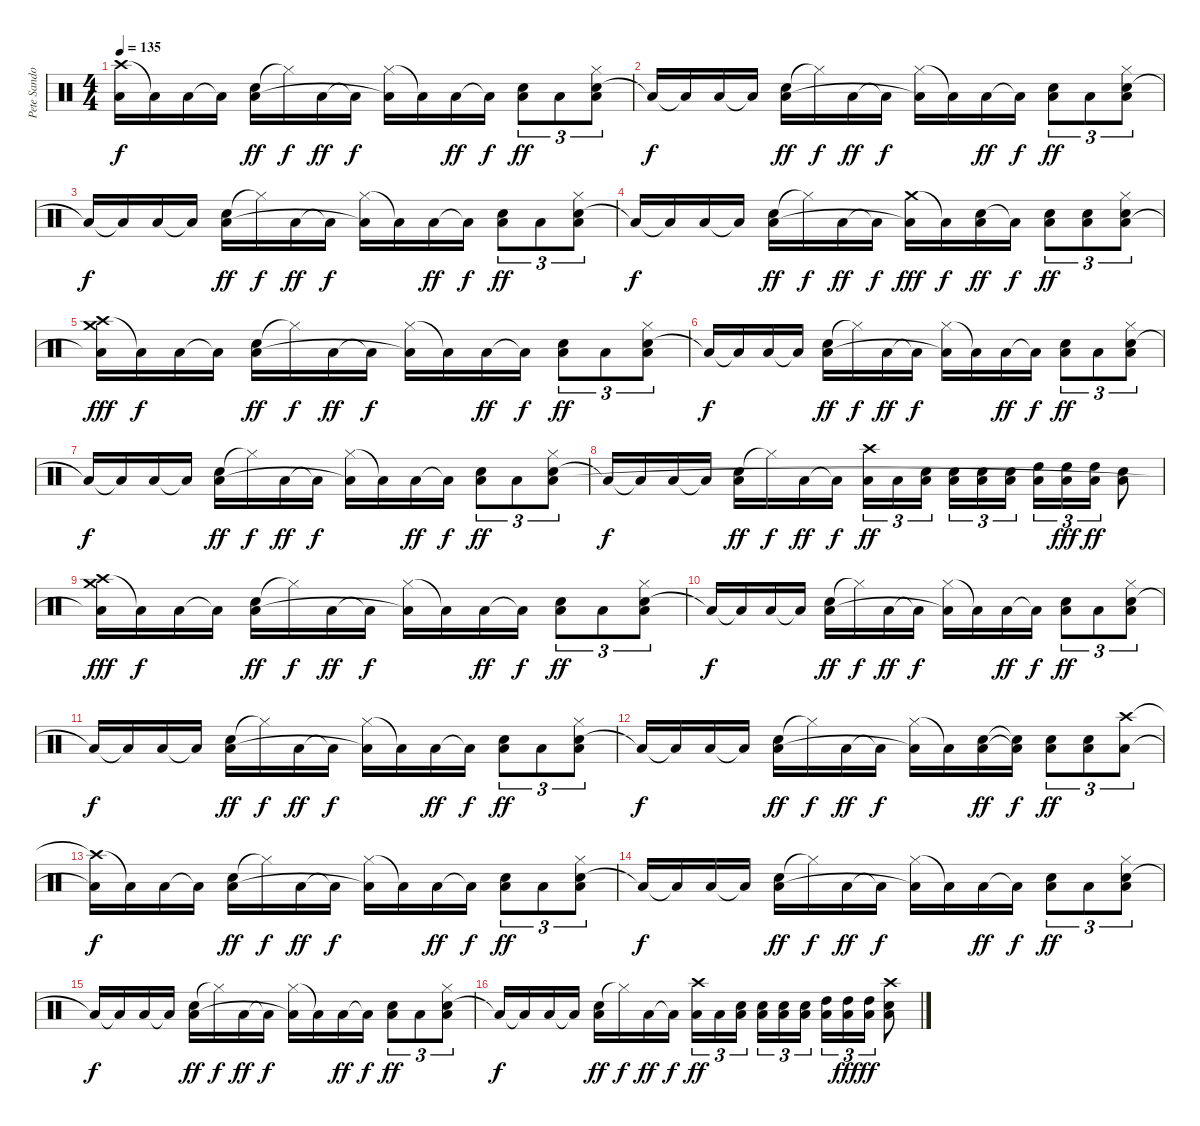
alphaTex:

\track ("Pete Sandoval" "Pete Sando") {instrument percussion}
\staff {score}
\articulation defaults
\ts (4 4)
\tempo 135
\clef neutral
\ks c
("Crash high (hit)" "Low Floor Tom (hit)"{t}).16{dy f} "Low Floor Tom (hit)"{t}.16 "Low Floor Tom (hit)".16 "Low Floor Tom (hit)"{t}.16 ("Electric Snare (hit)" "Low Floor Tom (hit)").16{dy ff} "Hi-Hat (closed)"{t}.16{dy f} "Low Floor Tom (hit)".16{dy ff} "Low Floor Tom (hit)"{t}.16{dy f} ("Hi-Hat (closed)" "Low Floor Tom (hit)"{t}).16 "Low Floor Tom (hit)"{t}.16 "Low Floor Tom (hit)".16{dy ff} "Low Floor Tom (hit)"{t}.16{dy f} ("Electric Snare (hit)" "Low Floor Tom (hit)").8{tu (3 2) dy ff} "Low Floor Tom (hit)".8{tu (3 2)} ("Electric Snare (hit)" "Hi-Hat (closed)" "Low Floor Tom (hit)").8{tu (3 2)} |
"Low Floor Tom (hit)"{t}.16{dy f} "Low Floor Tom (hit)"{t}.16 "Low Floor Tom (hit)".16 "Low Floor Tom (hit)"{t}.16 ("Electric Snare (hit)" "Low Floor Tom (hit)").16{dy ff} "Hi-Hat (closed)"{t}.16{dy f} "Low Floor Tom (hit)".16{dy ff} "Low Floor Tom (hit)"{t}.16{dy f} ("Hi-Hat (closed)" "Low Floor Tom (hit)"{t}).16 "Low Floor Tom (hit)"{t}.16 "Low Floor Tom (hit)".16{dy ff} "Low Floor Tom (hit)"{t}.16{dy f} ("Electric Snare (hit)" "Low Floor Tom (hit)").8{tu (3 2) dy ff} "Low Floor Tom (hit)".8{tu (3 2)} ("Electric Snare (hit)" "Hi-Hat (closed)" "Low Floor Tom (hit)").8{tu (3 2)} |
"Low Floor Tom (hit)"{t}.16{dy f} "Low Floor Tom (hit)"{t}.16 "Low Floor Tom (hit)".16 "Low Floor Tom (hit)"{t}.16 ("Electric Snare (hit)" "Low Floor Tom (hit)").16{dy ff} "Hi-Hat (closed)"{t}.16{dy f} "Low Floor Tom (hit)".16{dy ff} "Low Floor Tom (hit)"{t}.16{dy f} ("Hi-Hat (closed)" "Low Floor Tom (hit)"{t}).16 "Low Floor Tom (hit)"{t}.16 "Low Floor Tom (hit)".16{dy ff} "Low Floor Tom (hit)"{t}.16{dy f} ("Electric Snare (hit)" "Low Floor Tom (hit)").8{tu (3 2) dy ff} "Low Floor Tom (hit)".8{tu (3 2)} ("Electric Snare (hit)" "Hi-Hat (closed)" "Low Floor Tom (hit)").8{tu (3 2)} |
"Low Floor Tom (hit)"{t}.16{dy f} "Low Floor Tom (hit)"{t}.16 "Low Floor Tom (hit)".16 "Low Floor Tom (hit)"{t}.16 ("Electric Snare (hit)" "Low Floor Tom (hit)").16{dy ff} "Hi-Hat (closed)"{t}.16{dy f} "Low Floor Tom (hit)".16{dy ff} "Low Floor Tom (hit)"{t}.16{dy f} ("Crash medium (hit)" "Low Floor Tom (hit)"{t}).16{dy fff} "Low Floor Tom (hit)"{t}.16{dy f} ("Electric Snare (hit)" "Low Floor Tom (hit)").16{dy ff} "Low Floor Tom (hit)"{t}.16{dy f} ("Electric Snare (hit)" "Low Floor Tom (hit)").8{tu (3 2) dy ff} ("Electric Snare (hit)" "Low Floor Tom (hit)").8{tu (3 2)} ("Electric Snare (hit)" "Hi-Hat (closed)" "Low Floor Tom (hit)").8{tu (3 2)} |
("Crash high (hit)" "Crash medium (hit)" "Low Floor Tom (hit)"{t}).16{dy fff} "Low Floor Tom (hit)"{t}.16{dy f} "Low Floor Tom (hit)".16 "Low Floor Tom (hit)"{t}.16 ("Electric Snare (hit)" "Low Floor Tom (hit)").16{dy ff} "Hi-Hat (closed)"{t}.16{dy f} "Low Floor Tom (hit)".16{dy ff} "Low Floor Tom (hit)"{t}.16{dy f} ("Hi-Hat (closed)" "Low Floor Tom (hit)"{t}).16 "Low Floor Tom (hit)"{t}.16 "Low Floor Tom (hit)".16{dy ff} "Low Floor Tom (hit)"{t}.16{dy f} ("Electric Snare (hit)" "Low Floor Tom (hit)").8{tu (3 2) dy ff} "Low Floor Tom (hit)".8{tu (3 2)} ("Electric Snare (hit)" "Hi-Hat (closed)" "Low Floor Tom (hit)").8{tu (3 2)} |
"Low Floor Tom (hit)"{t}.16{dy f} "Low Floor Tom (hit)"{t}.16 "Low Floor Tom (hit)".16 "Low Floor Tom (hit)"{t}.16 ("Electric Snare (hit)" "Low Floor Tom (hit)").16{dy ff} "Hi-Hat (closed)"{t}.16{dy f} "Low Floor Tom (hit)".16{dy ff} "Low Floor Tom (hit)"{t}.16{dy f} ("Hi-Hat (closed)" "Low Floor Tom (hit)"{t}).16 "Low Floor Tom (hit)"{t}.16 "Low Floor Tom (hit)".16{dy ff} "Low Floor Tom (hit)"{t}.16{dy f} ("Electric Snare (hit)" "Low Floor Tom (hit)").8{tu (3 2) dy ff} "Low Floor Tom (hit)".8{tu (3 2)} ("Electric Snare (hit)" "Hi-Hat (closed)" "Low Floor Tom (hit)").8{tu (3 2)} |
"Low Floor Tom (hit)"{t}.16{dy f} "Low Floor Tom (hit)"{t}.16 "Low Floor Tom (hit)".16 "Low Floor Tom (hit)"{t}.16 ("Electric Snare (hit)" "Low Floor Tom (hit)").16{dy ff} "Hi-Hat (closed)"{t}.16{dy f} "Low Floor Tom (hit)".16{dy ff} "Low Floor Tom (hit)"{t}.16{dy f} ("Hi-Hat (closed)" "Low Floor Tom (hit)"{t}).16 "Low Floor Tom (hit)"{t}.16 "Low Floor Tom (hit)".16{dy ff} "Low Floor Tom (hit)"{t}.16{dy f} ("Electric Snare (hit)" "Low Floor Tom (hit)").8{tu (3 2) dy ff} "Low Floor Tom (hit)".8{tu (3 2)} ("Electric Snare (hit)" "Hi-Hat (closed)" "Low Floor Tom (hit)").8{tu (3 2)} |
"Low Floor Tom (hit)"{t}.16{dy f} "Low Floor Tom (hit)"{t}.16 "Low Floor Tom (hit)".16 "Low Floor Tom (hit)"{t}.16 ("Electric Snare (hit)" "Low Floor Tom (hit)").16{dy ff} "Hi-Hat (closed)"{t}.16{dy f} "Low Floor Tom (hit)".16{dy ff} "Low Floor Tom (hit)"{t}.16{dy f} ("Crash high (hit)" "Low Floor Tom (hit)").16{tu (3 2) dy ff} "Low Floor Tom (hit)".16{tu (3 2)} ("Electric Snare (hit)" "Low Floor Tom (hit)").16{tu (3 2) beam splitsecondary} ("Electric Snare (hit)" "Low Floor Tom (hit)").16{tu (3 2)} ("Electric Snare (hit)" "Low Floor Tom (hit)").16{tu (3 2)} ("Electric Snare (hit)" "Low Floor Tom (hit)").16{tu (3 2)} ("High Tom (hit)" "Low Floor Tom (hit)").16{tu (3 2)} ("High Tom (hit)" "Low Floor Tom (hit)").16{tu (3 2) dy fff} ("High Tom (hit)" "Low Floor Tom (hit)").16{tu (3 2) dy ff} ("Electric Snare (hit)" "Low Floor Tom (hit)").8 |
("Crash high (hit)" "Crash medium (hit)" "Low Floor Tom (hit)"{t}).16{dy fff} "Low Floor Tom (hit)"{t}.16{dy f} "Low Floor Tom (hit)".16 "Low Floor Tom (hit)"{t}.16 ("Electric Snare (hit)" "Low Floor Tom (hit)").16{dy ff} "Hi-Hat (closed)"{t}.16{dy f} "Low Floor Tom (hit)".16{dy ff} "Low Floor Tom (hit)"{t}.16{dy f} ("Hi-Hat (closed)" "Low Floor Tom (hit)"{t}).16 "Low Floor Tom (hit)"{t}.16 "Low Floor Tom (hit)".16{dy ff} "Low Floor Tom (hit)"{t}.16{dy f} ("Electric Snare (hit)" "Low Floor Tom (hit)").8{tu (3 2) dy ff} "Low Floor Tom (hit)".8{tu (3 2)} ("Electric Snare (hit)" "Hi-Hat (closed)" "Low Floor Tom (hit)").8{tu (3 2)} |
"Low Floor Tom (hit)"{t}.16{dy f} "Low Floor Tom (hit)"{t}.16 "Low Floor Tom (hit)".16 "Low Floor Tom (hit)"{t}.16 ("Electric Snare (hit)" "Low Floor Tom (hit)").16{dy ff} "Hi-Hat (closed)"{t}.16{dy f} "Low Floor Tom (hit)".16{dy ff} "Low Floor Tom (hit)"{t}.16{dy f} ("Hi-Hat (closed)" "Low Floor Tom (hit)"{t}).16 "Low Floor Tom (hit)"{t}.16 "Low Floor Tom (hit)".16{dy ff} "Low Floor Tom (hit)"{t}.16{dy f} ("Electric Snare (hit)" "Low Floor Tom (hit)").8{tu (3 2) dy ff} "Low Floor Tom (hit)".8{tu (3 2)} ("Electric Snare (hit)" "Hi-Hat (closed)" "Low Floor Tom (hit)").8{tu (3 2)} |
"Low Floor Tom (hit)"{t}.16{dy f} "Low Floor Tom (hit)"{t}.16 "Low Floor Tom (hit)".16 "Low Floor Tom (hit)"{t}.16 ("Electric Snare (hit)" "Low Floor Tom (hit)").16{dy ff} "Hi-Hat (closed)"{t}.16{dy f} "Low Floor Tom (hit)".16{dy ff} "Low Floor Tom (hit)"{t}.16{dy f} ("Hi-Hat (closed)" "Low Floor Tom (hit)"{t}).16 "Low Floor Tom (hit)"{t}.16 "Low Floor Tom (hit)".16{dy ff} "Low Floor Tom (hit)"{t}.16{dy f} ("Electric Snare (hit)" "Low Floor Tom (hit)").8{tu (3 2) dy ff} "Low Floor Tom (hit)".8{tu (3 2)} ("Electric Snare (hit)" "Hi-Hat (closed)" "Low Floor Tom (hit)").8{tu (3 2)} |
"Low Floor Tom (hit)"{t}.16{dy f} "Low Floor Tom (hit)"{t}.16 "Low Floor Tom (hit)".16 "Low Floor Tom (hit)"{t}.16 ("Electric Snare (hit)" "Low Floor Tom (hit)").16{dy ff} "Hi-Hat (closed)"{t}.16{dy f} "Low Floor Tom (hit)".16{dy ff} "Low Floor Tom (hit)"{t}.16{dy f} ("Hi-Hat (closed)" "Low Floor Tom (hit)"{t}).16 "Low Floor Tom (hit)"{t}.16 ("Electric Snare (hit)" "Low Floor Tom (hit)").16{dy ff} ("Electric Snare (hit)"{t} "Low Floor Tom (hit)"{t}).16{dy f} ("Electric Snare (hit)" "Low Floor Tom (hit)").8{tu (3 2) dy ff} ("Electric Snare (hit)" "Low Floor Tom (hit)").8{tu (3 2)} ("Crash high (hit)" "Low Floor Tom (hit)").8{tu (3 2)} |
("Crash high (hit)"{t} "Low Floor Tom (hit)"{t}).16{dy f} "Low Floor Tom (hit)"{t}.16 "Low Floor Tom (hit)".16 "Low Floor Tom (hit)"{t}.16 ("Electric Snare (hit)" "Low Floor Tom (hit)").16{dy ff} "Hi-Hat (closed)"{t}.16{dy f} "Low Floor Tom (hit)".16{dy ff} "Low Floor Tom (hit)"{t}.16{dy f} ("Hi-Hat (closed)" "Low Floor Tom (hit)"{t}).16 "Low Floor Tom (hit)"{t}.16 "Low Floor Tom (hit)".16{dy ff} "Low Floor Tom (hit)"{t}.16{dy f} ("Electric Snare (hit)" "Low Floor Tom (hit)").8{tu (3 2) dy ff} "Low Floor Tom (hit)".8{tu (3 2)} ("Electric Snare (hit)" "Hi-Hat (closed)" "Low Floor Tom (hit)").8{tu (3 2)} |
"Low Floor Tom (hit)"{t}.16{dy f} "Low Floor Tom (hit)"{t}.16 "Low Floor Tom (hit)".16 "Low Floor Tom (hit)"{t}.16 ("Electric Snare (hit)" "Low Floor Tom (hit)").16{dy ff} "Hi-Hat (closed)"{t}.16{dy f} "Low Floor Tom (hit)".16{dy ff} "Low Floor Tom (hit)"{t}.16{dy f} ("Hi-Hat (closed)" "Low Floor Tom (hit)"{t}).16 "Low Floor Tom (hit)"{t}.16 "Low Floor Tom (hit)".16{dy ff} "Low Floor Tom (hit)"{t}.16{dy f} ("Electric Snare (hit)" "Low Floor Tom (hit)").8{tu (3 2) dy ff} "Low Floor Tom (hit)".8{tu (3 2)} ("Electric Snare (hit)" "Hi-Hat (closed)" "Low Floor Tom (hit)").8{tu (3 2)} |
"Low Floor Tom (hit)"{t}.16{dy f} "Low Floor Tom (hit)"{t}.16 "Low Floor Tom (hit)".16 "Low Floor Tom (hit)"{t}.16 ("Electric Snare (hit)" "Low Floor Tom (hit)").16{dy ff} "Hi-Hat (closed)"{t}.16{dy f} "Low Floor Tom (hit)".16{dy ff} "Low Floor Tom (hit)"{t}.16{dy f} ("Hi-Hat (closed)" "Low Floor Tom (hit)"{t}).16 "Low Floor Tom (hit)"{t}.16 "Low Floor Tom (hit)".16{dy ff} "Low Floor Tom (hit)"{t}.16{dy f} ("Electric Snare (hit)" "Low Floor Tom (hit)").8{tu (3 2) dy ff} "Low Floor Tom (hit)".8{tu (3 2)} ("Electric Snare (hit)" "Hi-Hat (closed)" "Low Floor Tom (hit)").8{tu (3 2)} |
"Low Floor Tom (hit)"{t}.16{dy f} "Low Floor Tom (hit)"{t}.16 "Low Floor Tom (hit)".16 "Low Floor Tom (hit)"{t}.16 ("Electric Snare (hit)" "Low Floor Tom (hit)").16{dy ff} "Hi-Hat (closed)"{t}.16{dy f} "Low Floor Tom (hit)".16{dy ff} "Low Floor Tom (hit)"{t}.16{dy f} ("Crash high (hit)" "Low Floor Tom (hit)").16{tu (3 2) dy ff} "Low Floor Tom (hit)".16{tu (3 2)} ("Electric Snare (hit)" "Low Floor Tom (hit)").16{tu (3 2) beam splitsecondary} ("Electric Snare (hit)" "Low Floor Tom (hit)").16{tu (3 2)} ("Electric Snare (hit)" "Low Floor Tom (hit)").16{tu (3 2)} ("Electric Snare (hit)" "Low Floor Tom (hit)").16{tu (3 2)} ("High Tom (hit)" "Low Floor Tom (hit)").16{tu (3 2)} ("High Tom (hit)" "Low Floor Tom (hit)").16{tu (3 2) dy fff} ("High Tom (hit)" "Low Floor Tom (hit)").16{tu (3 2) dy ff} ("Crash high (hit)" "Electric Snare (hit)" "Low Floor Tom (hit)").8
